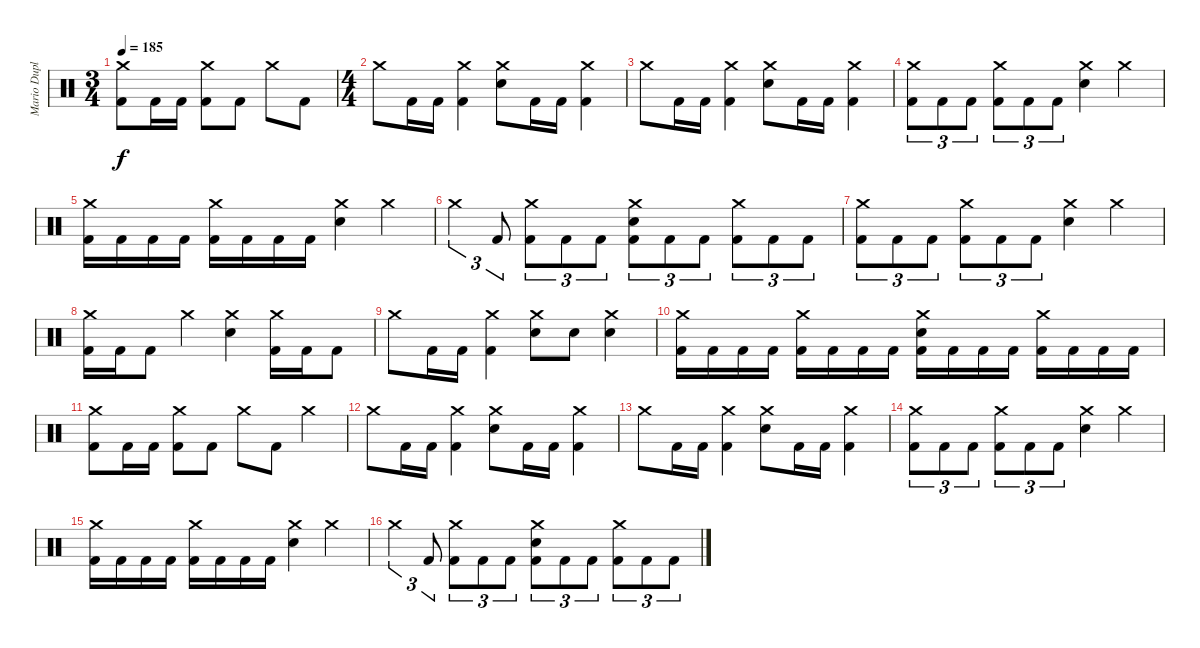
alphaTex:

\track ("Mario Duplantier" "Mario Dupl") {instrument percussion}
\staff {score}
\articulation defaults
\ts (3 4)
\tempo 185
\clef neutral
\ks c
("Crash medium (hit)" "Kick (hit) 2").8{dy f} "Kick (hit) 2".16 "Kick (hit) 2".16 ("Crash medium (hit)" "Kick (hit) 2").8 "Kick (hit) 2".8 "Crash medium (hit)".8 "Kick (hit) 2".8 |
\ts (4 4)
"Crash medium (hit)".8 "Kick (hit) 2".16 "Kick (hit) 2".16 ("Crash medium (hit)" "Kick (hit) 2").4 ("Crash medium (hit)" "Electric Snare (hit)").8 "Kick (hit) 2".16 "Kick (hit) 2".16 ("Crash medium (hit)" "Kick (hit) 2").4 |
"Crash medium (hit)".8 "Kick (hit) 2".16 "Kick (hit) 2".16 ("Crash medium (hit)" "Kick (hit) 2").4 ("Crash medium (hit)" "Electric Snare (hit)").8 "Kick (hit) 2".16 "Kick (hit) 2".16 ("Crash medium (hit)" "Kick (hit) 2").4 |
("Crash medium (hit)" "Kick (hit) 2").8{tu (3 2)} "Kick (hit) 2".8{tu (3 2)} "Kick (hit) 2".8{tu (3 2)} ("Crash medium (hit)" "Kick (hit) 2").8{tu (3 2)} "Kick (hit) 2".8{tu (3 2)} "Kick (hit) 2".8{tu (3 2)} ("Crash medium (hit)" "Electric Snare (hit)").4 "Crash medium (hit)".4 |
("Crash medium (hit)" "Kick (hit) 2").16 "Kick (hit) 2".16 "Kick (hit) 2".16 "Kick (hit) 2".16 ("Crash medium (hit)" "Kick (hit) 2").16 "Kick (hit) 2".16 "Kick (hit) 2".16 "Kick (hit) 2".16 ("Crash medium (hit)" "Electric Snare (hit)").4 "Crash medium (hit)".4 |
"Crash medium (hit)".4{tu (3 2)} "Kick (hit) 2".8{tu (3 2)} ("Crash medium (hit)" "Kick (hit) 2").8{tu (3 2)} "Kick (hit) 2".8{tu (3 2)} "Kick (hit) 2".8{tu (3 2)} ("Crash medium (hit)" "Electric Snare (hit)" "Kick (hit) 2").8{tu (3 2)} "Kick (hit) 2".8{tu (3 2)} "Kick (hit) 2".8{tu (3 2)} ("Crash medium (hit)" "Kick (hit) 2").8{tu (3 2)} "Kick (hit) 2".8{tu (3 2)} "Kick (hit) 2".8{tu (3 2)} |
("Crash medium (hit)" "Kick (hit) 2").8{tu (3 2)} "Kick (hit) 2".8{tu (3 2)} "Kick (hit) 2".8{tu (3 2)} ("Crash medium (hit)" "Kick (hit) 2").8{tu (3 2)} "Kick (hit) 2".8{tu (3 2)} "Kick (hit) 2".8{tu (3 2)} ("Crash medium (hit)" "Electric Snare (hit)").4 "Crash medium (hit)".4 |
("Crash medium (hit)" "Kick (hit) 2").16 "Kick (hit) 2".16 "Kick (hit) 2".8 "Crash medium (hit)".4 ("Crash medium (hit)" "Electric Snare (hit)").4 ("Crash medium (hit)" "Kick (hit) 2").16 "Kick (hit) 2".16 "Kick (hit) 2".8 |
"Crash medium (hit)".8 "Kick (hit) 2".16 "Kick (hit) 2".16 ("Crash medium (hit)" "Kick (hit) 2").4 ("Crash medium (hit)" "Electric Snare (hit)").8 "Electric Snare (hit)".8 ("Crash medium (hit)" "Electric Snare (hit)").4 |
("Crash medium (hit)" "Kick (hit) 2").16 "Kick (hit) 2".16 "Kick (hit) 2".16 "Kick (hit) 2".16 ("Crash medium (hit)" "Kick (hit) 2").16 "Kick (hit) 2".16 "Kick (hit) 2".16 "Kick (hit) 2".16 ("Crash medium (hit)" "Electric Snare (hit)" "Kick (hit) 2").16 "Kick (hit) 2".16 "Kick (hit) 2".16 "Kick (hit) 2".16 ("Crash medium (hit)" "Kick (hit) 2").16 "Kick (hit) 2".16 "Kick (hit) 2".16 "Kick (hit) 2".16 |
("Crash medium (hit)" "Kick (hit) 2").8 "Kick (hit) 2".16 "Kick (hit) 2".16 ("Crash medium (hit)" "Kick (hit) 2").8 "Kick (hit) 2".8 "Crash medium (hit)".8 "Kick (hit) 2".8 "Crash medium (hit)".4 |
"Crash medium (hit)".8 "Kick (hit) 2".16 "Kick (hit) 2".16 ("Crash medium (hit)" "Kick (hit) 2").4 ("Crash medium (hit)" "Electric Snare (hit)").8 "Kick (hit) 2".16 "Kick (hit) 2".16 ("Crash medium (hit)" "Kick (hit) 2").4 |
"Crash medium (hit)".8 "Kick (hit) 2".16 "Kick (hit) 2".16 ("Crash medium (hit)" "Kick (hit) 2").4 ("Crash medium (hit)" "Electric Snare (hit)").8 "Kick (hit) 2".16 "Kick (hit) 2".16 ("Crash medium (hit)" "Kick (hit) 2").4 |
("Crash medium (hit)" "Kick (hit) 2").8{tu (3 2)} "Kick (hit) 2".8{tu (3 2)} "Kick (hit) 2".8{tu (3 2)} ("Crash medium (hit)" "Kick (hit) 2").8{tu (3 2)} "Kick (hit) 2".8{tu (3 2)} "Kick (hit) 2".8{tu (3 2)} ("Crash medium (hit)" "Electric Snare (hit)").4 "Crash medium (hit)".4 |
("Crash medium (hit)" "Kick (hit) 2").16 "Kick (hit) 2".16 "Kick (hit) 2".16 "Kick (hit) 2".16 ("Crash medium (hit)" "Kick (hit) 2").16 "Kick (hit) 2".16 "Kick (hit) 2".16 "Kick (hit) 2".16 ("Crash medium (hit)" "Electric Snare (hit)").4 "Crash medium (hit)".4 |
"Crash medium (hit)".4{tu (3 2)} "Kick (hit) 2".8{tu (3 2)} ("Crash medium (hit)" "Kick (hit) 2").8{tu (3 2)} "Kick (hit) 2".8{tu (3 2)} "Kick (hit) 2".8{tu (3 2)} ("Crash medium (hit)" "Electric Snare (hit)" "Kick (hit) 2").8{tu (3 2)} "Kick (hit) 2".8{tu (3 2)} "Kick (hit) 2".8{tu (3 2)} ("Crash medium (hit)" "Kick (hit) 2").8{tu (3 2)} "Kick (hit) 2".8{tu (3 2)} "Kick (hit) 2".8{tu (3 2)}
